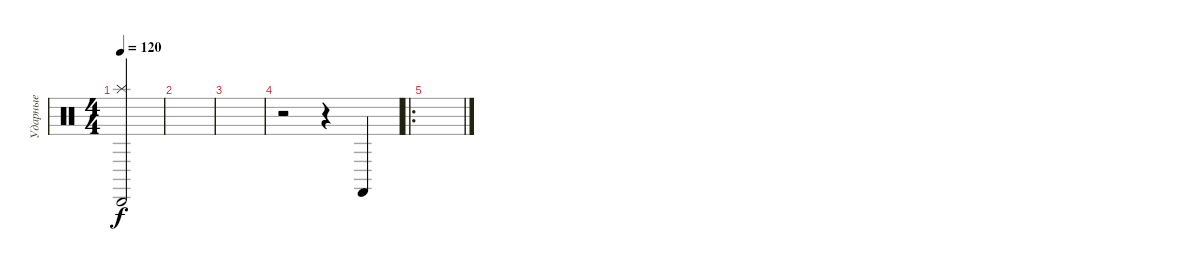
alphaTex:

\track ("Ударные" "Ударные") {instrument percussion}
\staff {score}
\articulation defaults
\ts (4 4)
\tempo 120
\clef neutral
\ks c
("Splash (hit)" "Cabasa (hit)").2{dy f} |
|
|
r.2 r.4 "Castanets (hit)".4 |
\ro
